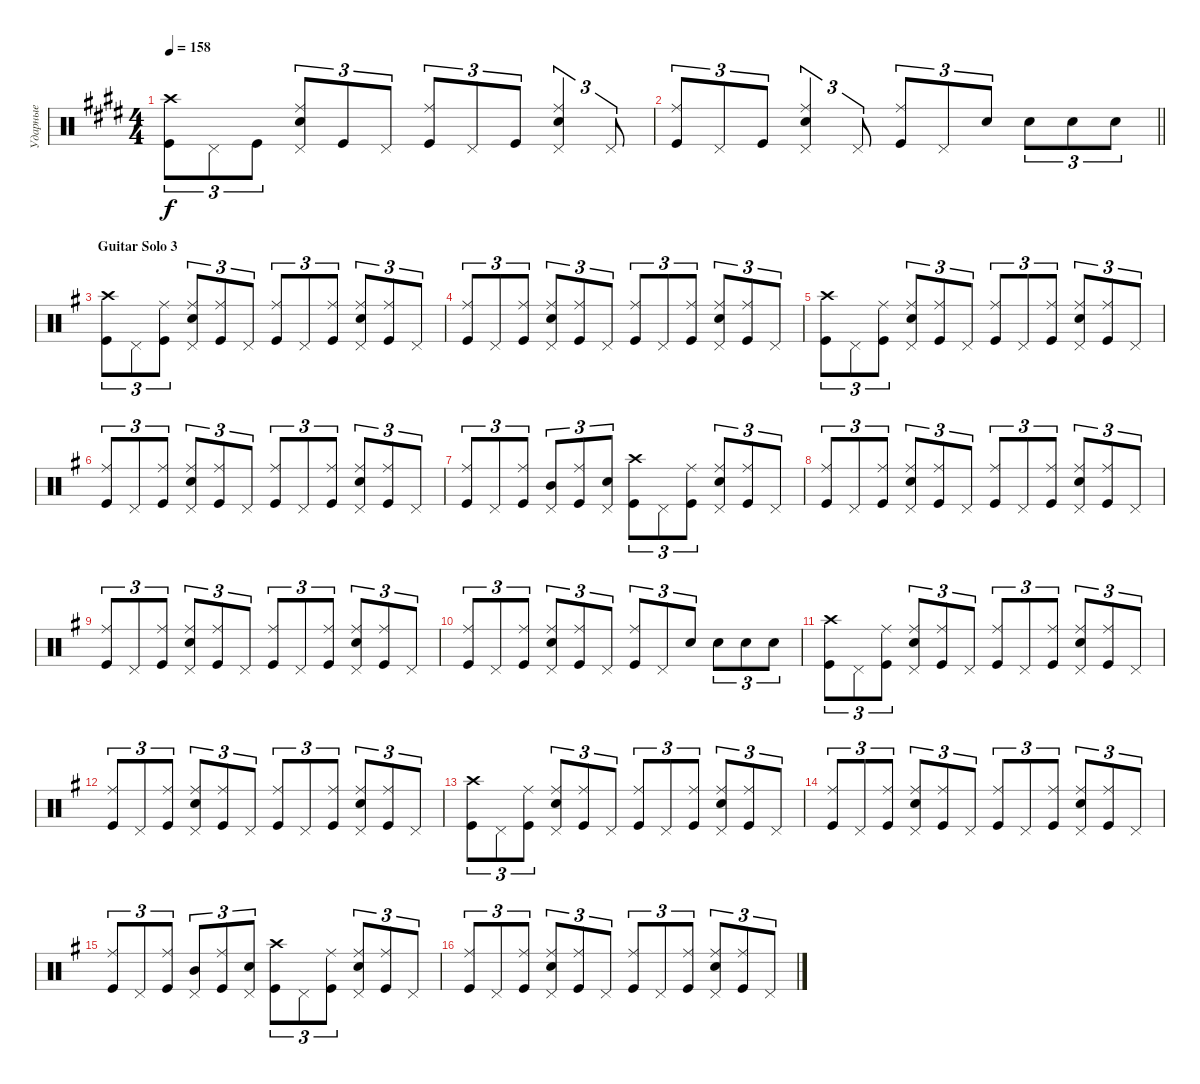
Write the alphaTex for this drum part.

\track ("Ударные" "Ударные") {instrument percussion}
\staff {score}
\articulation defaults
\ts (4 4)
\tempo 158
\clef neutral
\ks c#minor
("Kick (hit)" "Crash high (hit)").8{tu (3 2) bd 120 dy f} "Pedal Hi-Hat (hit)".8{tu (3 2)} "Kick (hit)".8{tu (3 2)} ("Snare (hit) 2" "Ride (middle)" "Pedal Hi-Hat (hit)").8{tu (3 2) bd 120} "Kick (hit)".8{tu (3 2)} "Pedal Hi-Hat (hit)".8{tu (3 2)} ("Kick (hit)" "Ride (middle)").8{tu (3 2) bd 120} "Pedal Hi-Hat (hit)".8{tu (3 2)} "Kick (hit)".8{tu (3 2)} ("Snare (hit) 2" "Ride (middle)" "Pedal Hi-Hat (hit)").4{tu (3 2) bd 120} "Pedal Hi-Hat (hit)".8{tu (3 2)} |
\barLineRight lightlight
("Kick (hit)" "Ride (middle)").8{tu (3 2) bd 120} "Pedal Hi-Hat (hit)".8{tu (3 2)} "Kick (hit)".8{tu (3 2)} ("Snare (hit) 2" "Ride (middle)" "Pedal Hi-Hat (hit)").4{tu (3 2) bd 120} "Pedal Hi-Hat (hit)".8{tu (3 2)} ("Kick (hit)" "Ride (middle)").8{tu (3 2) bd 120} "Pedal Hi-Hat (hit)".8{tu (3 2)} "Snare (hit) 2".8{tu (3 2)} "Snare (hit) 2".8{tu (3 2)} "Snare (hit) 2".8{tu (3 2)} "Snare (hit) 2".8{tu (3 2)} |
\section ("" "Guitar Solo 3")
\ks eminor
("Kick (hit)" "Crash high (hit)").8{tu (3 2) bd 120} "Pedal Hi-Hat (hit)".8{tu (3 2)} ("Kick (hit)" "Ride (middle)").8{tu (3 2) bd 120} ("Snare (hit) 2" "Ride (middle)" "Pedal Hi-Hat (hit)").8{tu (3 2) bd 120} ("Kick (hit)" "Ride (middle)").8{tu (3 2) bd 120} "Pedal Hi-Hat (hit)".8{tu (3 2)} ("Kick (hit)" "Ride (middle)").8{tu (3 2) bd 120} "Pedal Hi-Hat (hit)".8{tu (3 2)} ("Kick (hit)" "Ride (middle)").8{tu (3 2) bd 120} ("Snare (hit) 2" "Ride (middle)" "Pedal Hi-Hat (hit)").8{tu (3 2) bd 120} ("Kick (hit)" "Ride (middle)").8{tu (3 2) bd 120} "Pedal Hi-Hat (hit)".8{tu (3 2)} |
("Kick (hit)" "Ride (middle)").8{tu (3 2) bd 120} "Pedal Hi-Hat (hit)".8{tu (3 2)} ("Kick (hit)" "Ride (middle)").8{tu (3 2) bd 120} ("Snare (hit) 2" "Ride (middle)" "Pedal Hi-Hat (hit)").8{tu (3 2) bd 120} ("Kick (hit)" "Ride (middle)").8{tu (3 2) bd 120} "Pedal Hi-Hat (hit)".8{tu (3 2)} ("Kick (hit)" "Ride (middle)").8{tu (3 2) bd 120} "Pedal Hi-Hat (hit)".8{tu (3 2)} ("Kick (hit)" "Ride (middle)").8{tu (3 2) bd 120} ("Snare (hit) 2" "Ride (middle)" "Pedal Hi-Hat (hit)").8{tu (3 2) bd 120} ("Kick (hit)" "Ride (middle)").8{tu (3 2) bd 120} "Pedal Hi-Hat (hit)".8{tu (3 2)} |
("Kick (hit)" "Crash high (hit)").8{tu (3 2) bd 120} "Pedal Hi-Hat (hit)".8{tu (3 2)} ("Kick (hit)" "Ride (middle)").8{tu (3 2) bd 120} ("Snare (hit) 2" "Ride (middle)" "Pedal Hi-Hat (hit)").8{tu (3 2) bd 120} ("Kick (hit)" "Ride (middle)").8{tu (3 2) bd 120} "Pedal Hi-Hat (hit)".8{tu (3 2)} ("Kick (hit)" "Ride (middle)").8{tu (3 2) bd 120} "Pedal Hi-Hat (hit)".8{tu (3 2)} ("Kick (hit)" "Ride (middle)").8{tu (3 2) bd 120} ("Snare (hit) 2" "Ride (middle)" "Pedal Hi-Hat (hit)").8{tu (3 2) bd 120} ("Kick (hit)" "Ride (middle)").8{tu (3 2) bd 120} "Pedal Hi-Hat (hit)".8{tu (3 2)} |
("Kick (hit)" "Ride (middle)").8{tu (3 2) bd 120} "Pedal Hi-Hat (hit)".8{tu (3 2)} ("Kick (hit)" "Ride (middle)").8{tu (3 2) bd 120} ("Snare (hit) 2" "Ride (middle)" "Pedal Hi-Hat (hit)").8{tu (3 2) bd 120} ("Kick (hit)" "Ride (middle)").8{tu (3 2) bd 120} "Pedal Hi-Hat (hit)".8{tu (3 2)} ("Kick (hit)" "Ride (middle)").8{tu (3 2) bd 120} "Pedal Hi-Hat (hit)".8{tu (3 2)} ("Kick (hit)" "Ride (middle)").8{tu (3 2) bd 120} ("Snare (hit) 2" "Ride (middle)" "Pedal Hi-Hat (hit)").8{tu (3 2) bd 120} ("Kick (hit)" "Ride (middle)").8{tu (3 2) bd 120} "Pedal Hi-Hat (hit)".8{tu (3 2)} |
("Kick (hit)" "Ride (middle)").8{tu (3 2) bd 120} "Pedal Hi-Hat (hit)".8{tu (3 2)} ("Kick (hit)" "Ride (middle)").8{tu (3 2) bd 120} ("Mid Tom (hit)" "Pedal Hi-Hat (hit)").8{tu (3 2) bd 120} ("Kick (hit)" "Ride (middle)").8{tu (3 2) bd 120} ("Pedal Hi-Hat (hit)" "Snare (hit) 2").8{tu (3 2) bu 120} ("Kick (hit)" "Crash high (hit)").8{tu (3 2) bd 120} "Pedal Hi-Hat (hit)".8{tu (3 2)} ("Kick (hit)" "Ride (middle)").8{tu (3 2) bd 120} ("Snare (hit) 2" "Ride (middle)" "Pedal Hi-Hat (hit)").8{tu (3 2) bd 120} ("Kick (hit)" "Ride (middle)").8{tu (3 2) bd 120} "Pedal Hi-Hat (hit)".8{tu (3 2)} |
("Kick (hit)" "Ride (middle)").8{tu (3 2) bd 120} "Pedal Hi-Hat (hit)".8{tu (3 2)} ("Kick (hit)" "Ride (middle)").8{tu (3 2) bd 120} ("Snare (hit) 2" "Ride (middle)" "Pedal Hi-Hat (hit)").8{tu (3 2) bd 120} ("Kick (hit)" "Ride (middle)").8{tu (3 2) bd 120} "Pedal Hi-Hat (hit)".8{tu (3 2)} ("Kick (hit)" "Ride (middle)").8{tu (3 2) bd 120} "Pedal Hi-Hat (hit)".8{tu (3 2)} ("Kick (hit)" "Ride (middle)").8{tu (3 2) bd 120} ("Snare (hit) 2" "Ride (middle)" "Pedal Hi-Hat (hit)").8{tu (3 2) bd 120} ("Kick (hit)" "Ride (middle)").8{tu (3 2) bd 120} "Pedal Hi-Hat (hit)".8{tu (3 2)} |
("Kick (hit)" "Ride (middle)").8{tu (3 2) bd 120} "Pedal Hi-Hat (hit)".8{tu (3 2)} ("Kick (hit)" "Ride (middle)").8{tu (3 2) bd 120} ("Snare (hit) 2" "Ride (middle)" "Pedal Hi-Hat (hit)").8{tu (3 2) bd 120} ("Kick (hit)" "Ride (middle)").8{tu (3 2) bd 120} "Pedal Hi-Hat (hit)".8{tu (3 2)} ("Kick (hit)" "Ride (middle)").8{tu (3 2) bd 120} "Pedal Hi-Hat (hit)".8{tu (3 2)} ("Kick (hit)" "Ride (middle)").8{tu (3 2) bd 120} ("Snare (hit) 2" "Ride (middle)" "Pedal Hi-Hat (hit)").8{tu (3 2) bd 120} ("Kick (hit)" "Ride (middle)").8{tu (3 2) bd 120} "Pedal Hi-Hat (hit)".8{tu (3 2)} |
("Kick (hit)" "Ride (middle)").8{tu (3 2) bd 120} "Pedal Hi-Hat (hit)".8{tu (3 2)} ("Kick (hit)" "Ride (middle)").8{tu (3 2) bd 120} ("Snare (hit) 2" "Ride (middle)" "Pedal Hi-Hat (hit)").8{tu (3 2) bd 120} ("Kick (hit)" "Ride (middle)").8{tu (3 2) bd 120} "Pedal Hi-Hat (hit)".8{tu (3 2)} ("Kick (hit)" "Ride (middle)").8{tu (3 2) bd 120} "Pedal Hi-Hat (hit)".8{tu (3 2)} "Snare (hit) 2".8{tu (3 2)} "Snare (hit) 2".8{tu (3 2)} "Snare (hit) 2".8{tu (3 2)} "Snare (hit) 2".8{tu (3 2)} |
("Kick (hit)" "Crash high (hit)").8{tu (3 2) bd 120} "Pedal Hi-Hat (hit)".8{tu (3 2)} ("Kick (hit)" "Ride (middle)").8{tu (3 2) bd 120} ("Snare (hit) 2" "Ride (middle)" "Pedal Hi-Hat (hit)").8{tu (3 2) bd 120} ("Kick (hit)" "Ride (middle)").8{tu (3 2) bd 120} "Pedal Hi-Hat (hit)".8{tu (3 2)} ("Kick (hit)" "Ride (middle)").8{tu (3 2) bd 120} "Pedal Hi-Hat (hit)".8{tu (3 2)} ("Kick (hit)" "Ride (middle)").8{tu (3 2) bd 120} ("Snare (hit) 2" "Ride (middle)" "Pedal Hi-Hat (hit)").8{tu (3 2) bd 120} ("Kick (hit)" "Ride (middle)").8{tu (3 2) bd 120} "Pedal Hi-Hat (hit)".8{tu (3 2)} |
("Kick (hit)" "Ride (middle)").8{tu (3 2) bd 120} "Pedal Hi-Hat (hit)".8{tu (3 2)} ("Kick (hit)" "Ride (middle)").8{tu (3 2) bd 120} ("Snare (hit) 2" "Ride (middle)" "Pedal Hi-Hat (hit)").8{tu (3 2) bd 120} ("Kick (hit)" "Ride (middle)").8{tu (3 2) bd 120} "Pedal Hi-Hat (hit)".8{tu (3 2)} ("Kick (hit)" "Ride (middle)").8{tu (3 2) bd 120} "Pedal Hi-Hat (hit)".8{tu (3 2)} ("Kick (hit)" "Ride (middle)").8{tu (3 2) bd 120} ("Snare (hit) 2" "Ride (middle)" "Pedal Hi-Hat (hit)").8{tu (3 2) bd 120} ("Kick (hit)" "Ride (middle)").8{tu (3 2) bd 120} "Pedal Hi-Hat (hit)".8{tu (3 2)} |
("Kick (hit)" "Crash high (hit)").8{tu (3 2) bd 120} "Pedal Hi-Hat (hit)".8{tu (3 2)} ("Kick (hit)" "Ride (middle)").8{tu (3 2) bd 120} ("Snare (hit) 2" "Ride (middle)" "Pedal Hi-Hat (hit)").8{tu (3 2) bd 120} ("Kick (hit)" "Ride (middle)").8{tu (3 2) bd 120} "Pedal Hi-Hat (hit)".8{tu (3 2)} ("Kick (hit)" "Ride (middle)").8{tu (3 2) bd 120} "Pedal Hi-Hat (hit)".8{tu (3 2)} ("Kick (hit)" "Ride (middle)").8{tu (3 2) bd 120} ("Snare (hit) 2" "Ride (middle)" "Pedal Hi-Hat (hit)").8{tu (3 2) bd 120} ("Kick (hit)" "Ride (middle)").8{tu (3 2) bd 120} "Pedal Hi-Hat (hit)".8{tu (3 2)} |
("Kick (hit)" "Ride (middle)").8{tu (3 2) bd 120} "Pedal Hi-Hat (hit)".8{tu (3 2)} ("Kick (hit)" "Ride (middle)").8{tu (3 2) bd 120} ("Snare (hit) 2" "Ride (middle)" "Pedal Hi-Hat (hit)").8{tu (3 2) bd 120} ("Kick (hit)" "Ride (middle)").8{tu (3 2) bd 120} "Pedal Hi-Hat (hit)".8{tu (3 2)} ("Kick (hit)" "Ride (middle)").8{tu (3 2) bd 120} "Pedal Hi-Hat (hit)".8{tu (3 2)} ("Kick (hit)" "Ride (middle)").8{tu (3 2) bd 120} ("Snare (hit) 2" "Ride (middle)" "Pedal Hi-Hat (hit)").8{tu (3 2) bd 120} ("Kick (hit)" "Ride (middle)").8{tu (3 2) bd 120} "Pedal Hi-Hat (hit)".8{tu (3 2)} |
("Kick (hit)" "Ride (middle)").8{tu (3 2) bd 120} "Pedal Hi-Hat (hit)".8{tu (3 2)} ("Kick (hit)" "Ride (middle)").8{tu (3 2) bd 120} ("Mid Tom (hit)" "Pedal Hi-Hat (hit)").8{tu (3 2) bd 120} ("Kick (hit)" "Ride (middle)").8{tu (3 2) bd 120} ("Pedal Hi-Hat (hit)" "Snare (hit) 2").8{tu (3 2) bu 120} ("Kick (hit)" "Crash high (hit)").8{tu (3 2) bd 120} "Pedal Hi-Hat (hit)".8{tu (3 2)} ("Kick (hit)" "Ride (middle)").8{tu (3 2) bd 120} ("Snare (hit) 2" "Ride (middle)" "Pedal Hi-Hat (hit)").8{tu (3 2) bd 120} ("Kick (hit)" "Ride (middle)").8{tu (3 2) bd 120} "Pedal Hi-Hat (hit)".8{tu (3 2)} |
("Kick (hit)" "Ride (middle)").8{tu (3 2) bd 120} "Pedal Hi-Hat (hit)".8{tu (3 2)} ("Kick (hit)" "Ride (middle)").8{tu (3 2) bd 120} ("Snare (hit) 2" "Ride (middle)" "Pedal Hi-Hat (hit)").8{tu (3 2) bd 120} ("Kick (hit)" "Ride (middle)").8{tu (3 2) bd 120} "Pedal Hi-Hat (hit)".8{tu (3 2)} ("Kick (hit)" "Ride (middle)").8{tu (3 2) bd 120} "Pedal Hi-Hat (hit)".8{tu (3 2)} ("Kick (hit)" "Ride (middle)").8{tu (3 2) bd 120} ("Snare (hit) 2" "Ride (middle)" "Pedal Hi-Hat (hit)").8{tu (3 2) bd 120} ("Kick (hit)" "Ride (middle)").8{tu (3 2) bd 120} "Pedal Hi-Hat (hit)".8{tu (3 2)}
